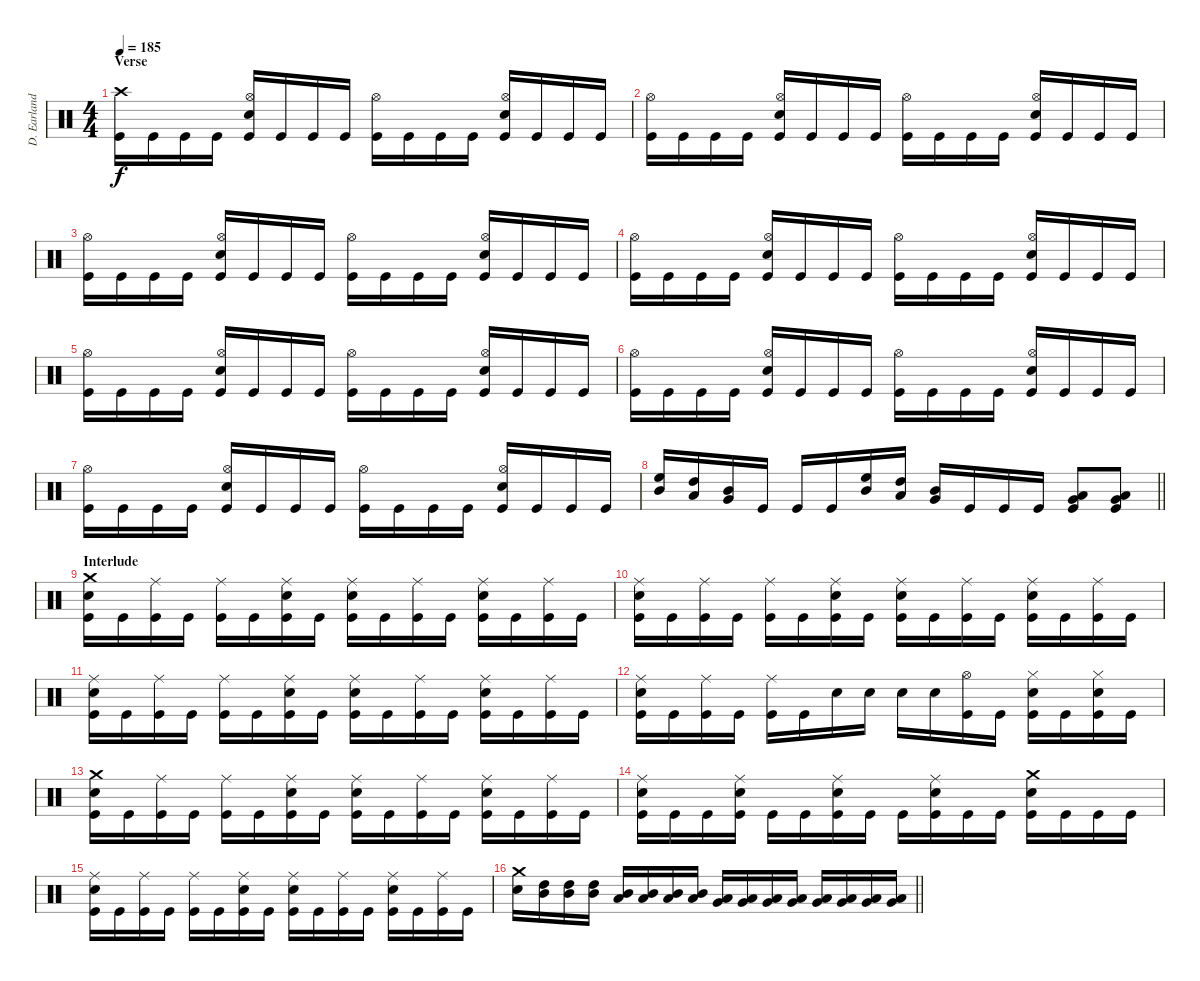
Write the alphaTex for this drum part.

\track ("D. Earlanddson" "D. Earland") {instrument percussion}
\staff {score}
\articulation defaults
\ts (4 4)
\section ("" "Verse")
\tempo 185
\clef neutral
\ks c
("Crash high (hit)" "Kick (hit)").16{dy f} "Kick (hit)".16 "Kick (hit)".16 "Kick (hit)".16 ("Hi-Hat (open)" "Electric Snare (hit)" "Kick (hit)").16 "Kick (hit)".16 "Kick (hit)".16 "Kick (hit)".16 ("Hi-Hat (open)" "Kick (hit)").16 "Kick (hit)".16 "Kick (hit)".16 "Kick (hit)".16 ("Hi-Hat (open)" "Electric Snare (hit)" "Kick (hit)").16 "Kick (hit)".16 "Kick (hit)".16 "Kick (hit)".16 |
("Hi-Hat (open)" "Kick (hit)").16 "Kick (hit)".16 "Kick (hit)".16 "Kick (hit)".16 ("Hi-Hat (open)" "Electric Snare (hit)" "Kick (hit)").16 "Kick (hit)".16 "Kick (hit)".16 "Kick (hit)".16 ("Hi-Hat (open)" "Kick (hit)").16 "Kick (hit)".16 "Kick (hit)".16 "Kick (hit)".16 ("Hi-Hat (open)" "Electric Snare (hit)" "Kick (hit)").16 "Kick (hit)".16 "Kick (hit)".16 "Kick (hit)".16 |
("Hi-Hat (open)" "Kick (hit)").16 "Kick (hit)".16 "Kick (hit)".16 "Kick (hit)".16 ("Hi-Hat (open)" "Electric Snare (hit)" "Kick (hit)").16 "Kick (hit)".16 "Kick (hit)".16 "Kick (hit)".16 ("Hi-Hat (open)" "Kick (hit)").16 "Kick (hit)".16 "Kick (hit)".16 "Kick (hit)".16 ("Hi-Hat (open)" "Electric Snare (hit)" "Kick (hit)").16 "Kick (hit)".16 "Kick (hit)".16 "Kick (hit)".16 |
("Hi-Hat (open)" "Kick (hit)").16 "Kick (hit)".16 "Kick (hit)".16 "Kick (hit)".16 ("Hi-Hat (open)" "Electric Snare (hit)" "Kick (hit)").16 "Kick (hit)".16 "Kick (hit)".16 "Kick (hit)".16 ("Hi-Hat (open)" "Kick (hit)").16 "Kick (hit)".16 "Kick (hit)".16 "Kick (hit)".16 ("Hi-Hat (open)" "Electric Snare (hit)" "Kick (hit)").16 "Kick (hit)".16 "Kick (hit)".16 "Kick (hit)".16 |
("Hi-Hat (open)" "Kick (hit)").16 "Kick (hit)".16 "Kick (hit)".16 "Kick (hit)".16 ("Hi-Hat (open)" "Electric Snare (hit)" "Kick (hit)").16 "Kick (hit)".16 "Kick (hit)".16 "Kick (hit)".16 ("Hi-Hat (open)" "Kick (hit)").16 "Kick (hit)".16 "Kick (hit)".16 "Kick (hit)".16 ("Hi-Hat (open)" "Electric Snare (hit)" "Kick (hit)").16 "Kick (hit)".16 "Kick (hit)".16 "Kick (hit)".16 |
("Hi-Hat (open)" "Kick (hit)").16 "Kick (hit)".16 "Kick (hit)".16 "Kick (hit)".16 ("Hi-Hat (open)" "Electric Snare (hit)" "Kick (hit)").16 "Kick (hit)".16 "Kick (hit)".16 "Kick (hit)".16 ("Hi-Hat (open)" "Kick (hit)").16 "Kick (hit)".16 "Kick (hit)".16 "Kick (hit)".16 ("Hi-Hat (open)" "Electric Snare (hit)" "Kick (hit)").16 "Kick (hit)".16 "Kick (hit)".16 "Kick (hit)".16 |
("Hi-Hat (open)" "Kick (hit)").16 "Kick (hit)".16 "Kick (hit)".16 "Kick (hit)".16 ("Hi-Hat (open)" "Electric Snare (hit)" "Kick (hit)").16 "Kick (hit)".16 "Kick (hit)".16 "Kick (hit)".16 ("Hi-Hat (open)" "Kick (hit)").16 "Kick (hit)".16 "Kick (hit)".16 "Kick (hit)".16 ("Hi-Hat (open)" "Electric Snare (hit)" "Kick (hit)").16 "Kick (hit)".16 "Kick (hit)".16 "Kick (hit)".16 |
\barLineRight lightlight
("High Floor Tom (hit)" "Mid Tom (hit)").16 ("High Tom (hit)" "Low Tom (hit)").16 ("Mid Tom (hit)" "Very Low Tom (hit)").16 "Kick (hit)".16 "Kick (hit)".16 "Kick (hit)".16 ("High Floor Tom (hit)" "Mid Tom (hit)").16 ("High Tom (hit)" "Low Tom (hit)").16 ("Mid Tom (hit)" "Very Low Tom (hit)").16 "Kick (hit)".16 "Kick (hit)".16 "Kick (hit)".16 ("Very Low Tom (hit)" "Low Floor Tom (hit)" "Kick (hit)").8 ("Very Low Tom (hit)" "Low Floor Tom (hit)" "Kick (hit)").8 |
\section ("" "Interlude")
("Crash medium (hit)" "Electric Snare (hit)" "Kick (hit)").16 "Kick (hit)".16 ("Ride (middle)" "Kick (hit)").16 "Kick (hit)".16 ("Ride (middle)" "Kick (hit)").16 "Kick (hit)".16 ("Ride (middle)" "Electric Snare (hit)" "Kick (hit)").16 "Kick (hit)".16 ("Ride (middle)" "Electric Snare (hit)" "Kick (hit)").16 "Kick (hit)".16 ("Ride (middle)" "Kick (hit)").16 "Kick (hit)".16 ("Ride (middle)" "Electric Snare (hit)" "Kick (hit)").16 "Kick (hit)".16 ("Ride (middle)" "Kick (hit)").16 "Kick (hit)".16 |
("Ride (middle)" "Electric Snare (hit)" "Kick (hit)").16 "Kick (hit)".16 ("Ride (middle)" "Kick (hit)").16 "Kick (hit)".16 ("Ride (middle)" "Kick (hit)").16 "Kick (hit)".16 ("Ride (middle)" "Electric Snare (hit)" "Kick (hit)").16 "Kick (hit)".16 ("Ride (middle)" "Electric Snare (hit)" "Kick (hit)").16 "Kick (hit)".16 ("Ride (middle)" "Kick (hit)").16 "Kick (hit)".16 ("Ride (middle)" "Electric Snare (hit)" "Kick (hit)").16 "Kick (hit)".16 ("Ride (middle)" "Kick (hit)").16 "Kick (hit)".16 |
("Ride (middle)" "Electric Snare (hit)" "Kick (hit)").16 "Kick (hit)".16 ("Ride (middle)" "Kick (hit)").16 "Kick (hit)".16 ("Ride (middle)" "Kick (hit)").16 "Kick (hit)".16 ("Ride (middle)" "Electric Snare (hit)" "Kick (hit)").16 "Kick (hit)".16 ("Ride (middle)" "Electric Snare (hit)" "Kick (hit)").16 "Kick (hit)".16 ("Ride (middle)" "Kick (hit)").16 "Kick (hit)".16 ("Ride (middle)" "Electric Snare (hit)" "Kick (hit)").16 "Kick (hit)".16 ("Ride (middle)" "Kick (hit)").16 "Kick (hit)".16 |
("Ride (middle)" "Electric Snare (hit)" "Kick (hit)").16 "Kick (hit)".16 ("Ride (middle)" "Kick (hit)").16 "Kick (hit)".16 ("Ride (middle)" "Kick (hit)").16 "Kick (hit)".16 "Electric Snare (hit)".16 "Electric Snare (hit)".16 "Electric Snare (hit)".16 "Electric Snare (hit)".16 ("Hi-Hat (open)" "Kick (hit)").16 "Kick (hit)".16 ("Hi-Hat (closed)" "Electric Snare (hit)" "Kick (hit)").16 "Kick (hit)".16 ("Hi-Hat (closed)" "Electric Snare (hit)" "Kick (hit)").16 "Kick (hit)".16 |
("Crash medium (hit)" "Electric Snare (hit)" "Kick (hit)").16 "Kick (hit)".16 ("Ride (middle)" "Kick (hit)").16 "Kick (hit)".16 ("Ride (middle)" "Kick (hit)").16 "Kick (hit)".16 ("Ride (middle)" "Electric Snare (hit)" "Kick (hit)").16 "Kick (hit)".16 ("Ride (middle)" "Electric Snare (hit)" "Kick (hit)").16 "Kick (hit)".16 ("Ride (middle)" "Kick (hit)").16 "Kick (hit)".16 ("Ride (middle)" "Electric Snare (hit)" "Kick (hit)").16 "Kick (hit)".16 ("Ride (middle)" "Kick (hit)").16 "Kick (hit)".16 |
("Ride (middle)" "Electric Snare (hit)" "Kick (hit)").16 "Kick (hit)".16 "Kick (hit)".16 ("Ride (middle)" "Electric Snare (hit)" "Kick (hit)").16 "Kick (hit)".16 "Kick (hit)".16 ("Ride (middle)" "Electric Snare (hit)" "Kick (hit)").16 "Kick (hit)".16 "Kick (hit)".16 ("Ride (middle)" "Electric Snare (hit)" "Kick (hit)").16 "Kick (hit)".16 "Kick (hit)".16 ("Crash medium (hit)" "Electric Snare (hit)" "Kick (hit)").16 "Kick (hit)".16 "Kick (hit)".16 "Kick (hit)".16 |
("Ride (middle)" "Electric Snare (hit)" "Kick (hit)").16 "Kick (hit)".16 ("Ride (middle)" "Kick (hit)").16 "Kick (hit)".16 ("Ride (middle)" "Kick (hit)").16 "Kick (hit)".16 ("Ride (middle)" "Electric Snare (hit)" "Kick (hit)").16 "Kick (hit)".16 ("Ride (middle)" "Electric Snare (hit)" "Kick (hit)").16 "Kick (hit)".16 ("Ride (middle)" "Kick (hit)").16 "Kick (hit)".16 ("Ride (middle)" "Electric Snare (hit)" "Kick (hit)").16 "Kick (hit)".16 ("Ride (middle)" "Kick (hit)").16 "Kick (hit)".16 |
\barLineRight lightlight
("Crash medium (hit)" "Electric Snare (hit)").16 ("High Tom (hit)" "Mid Tom (hit)").16 ("High Tom (hit)" "Mid Tom (hit)").16 ("High Tom (hit)" "Mid Tom (hit)").16 ("Mid Tom (hit)" "Low Tom (hit)").16 ("Mid Tom (hit)" "Low Tom (hit)").16 ("Mid Tom (hit)" "Low Tom (hit)").16 ("Mid Tom (hit)" "Low Tom (hit)").16 ("Low Tom (hit)" "Very Low Tom (hit)").16 ("Low Tom (hit)" "Very Low Tom (hit)").16 ("Low Tom (hit)" "Very Low Tom (hit)").16 ("Low Tom (hit)" "Very Low Tom (hit)").16 ("Very Low Tom (hit)" "Low Floor Tom (hit)").16 ("Very Low Tom (hit)" "Low Floor Tom (hit)").16 ("Very Low Tom (hit)" "Low Floor Tom (hit)").16 ("Very Low Tom (hit)" "Low Floor Tom (hit)").16
